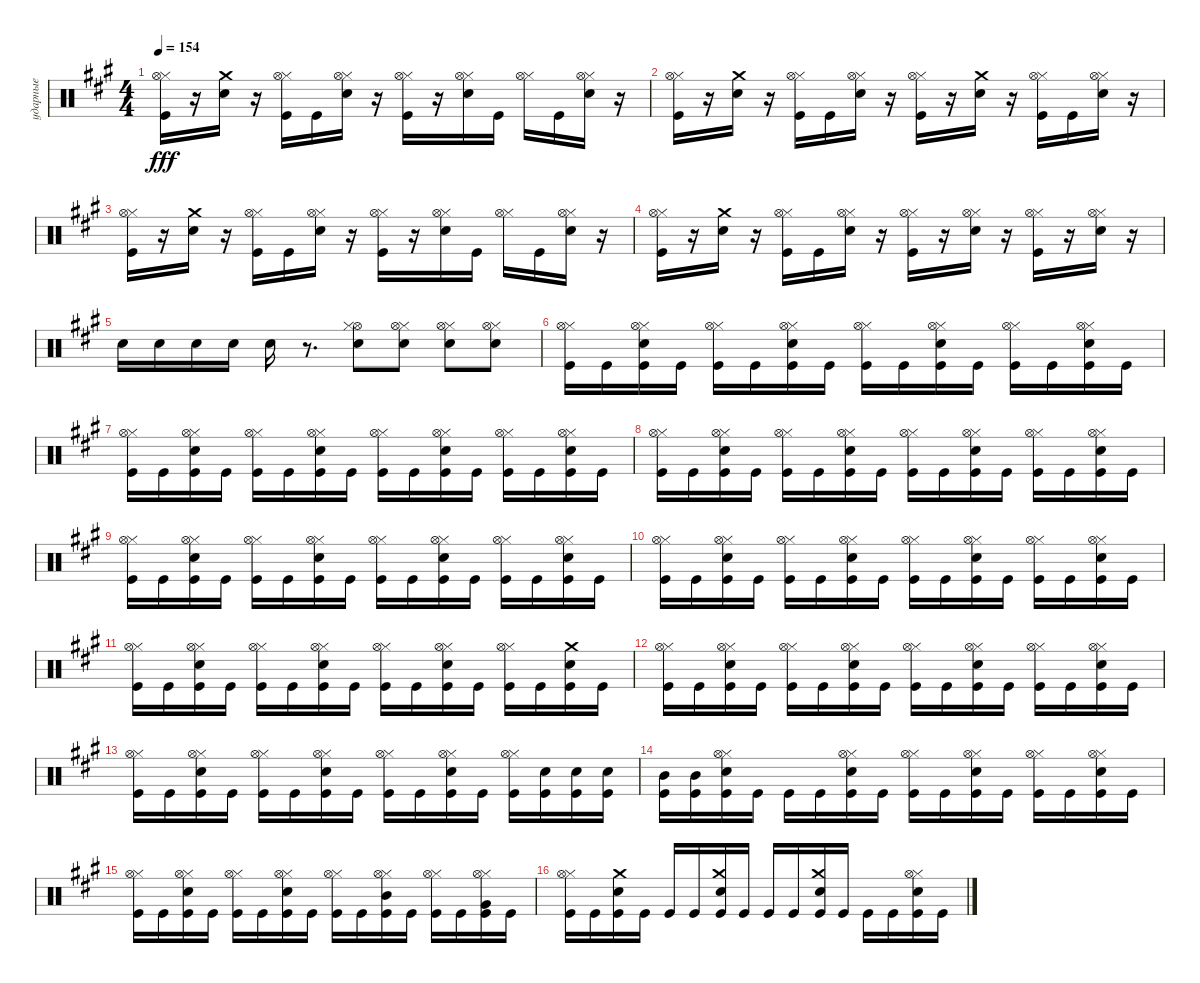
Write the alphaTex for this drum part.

\track ("ударные" "ударные") {instrument percussion}
\staff {score}
\articulation defaults
\ts (4 4)
\tempo 154
\clef neutral
\ks f#minor
("Hi-Hat (closed)" "Kick (hit)" "Hi-Hat (open)").16{dy fff} r.16 ("Crash medium (hit)" "Snare (hit) 2").16 r.16 ("Kick (hit)" "Hi-Hat (closed)" "Hi-Hat (open)").16 "Kick (hit)".16 ("Snare (hit) 2" "Hi-Hat (closed)" "Hi-Hat (open)").16 r.16 ("Hi-Hat (closed)" "Kick (hit)" "Hi-Hat (open)").16 r.16 ("Snare (hit) 2" "Hi-Hat (closed)" "Hi-Hat (open)").16 "Kick (hit)".16 ("Hi-Hat (closed)" "Hi-Hat (open)").16 "Kick (hit)".16 ("Hi-Hat (closed)" "Snare (hit) 2" "Hi-Hat (open)").16 r.16 |
("Hi-Hat (closed)" "Kick (hit)" "Hi-Hat (open)").16 r.16 ("Crash medium (hit)" "Snare (hit) 2").16 r.16 ("Kick (hit)" "Hi-Hat (closed)" "Hi-Hat (open)").16 "Kick (hit)".16 ("Snare (hit) 2" "Hi-Hat (closed)" "Hi-Hat (open)").16 r.16 ("Hi-Hat (closed)" "Kick (hit)" "Hi-Hat (open)").16 r.16 ("Crash medium (hit)" "Snare (hit) 2").16 r.16 ("Hi-Hat (closed)" "Kick (hit)" "Hi-Hat (open)").16 "Kick (hit)".16 ("Hi-Hat (closed)" "Snare (hit) 2" "Hi-Hat (open)").16 r.16 |
("Hi-Hat (closed)" "Kick (hit)" "Hi-Hat (open)").16 r.16 ("Crash medium (hit)" "Snare (hit) 2").16 r.16 ("Kick (hit)" "Hi-Hat (closed)" "Hi-Hat (open)").16 "Kick (hit)".16 ("Snare (hit) 2" "Hi-Hat (closed)" "Hi-Hat (open)").16 r.16 ("Hi-Hat (closed)" "Kick (hit)" "Hi-Hat (open)").16 r.16 ("Snare (hit) 2" "Hi-Hat (closed)" "Hi-Hat (open)").16 "Kick (hit)".16 ("Hi-Hat (closed)" "Hi-Hat (open)").16 "Kick (hit)".16 ("Hi-Hat (closed)" "Snare (hit) 2" "Hi-Hat (open)").16 r.16 |
("Hi-Hat (closed)" "Kick (hit)" "Hi-Hat (open)").16 r.16 ("Crash medium (hit)" "Snare (hit) 2").16 r.16 ("Kick (hit)" "Hi-Hat (closed)" "Hi-Hat (open)").16 "Kick (hit)".16 ("Snare (hit) 2" "Hi-Hat (closed)" "Hi-Hat (open)").16 r.16 ("Hi-Hat (closed)" "Kick (hit)" "Hi-Hat (open)").16 r.16 ("Hi-Hat (closed)" "Snare (hit) 2" "Hi-Hat (open)").16 r.16 ("Hi-Hat (closed)" "Kick (hit)" "Hi-Hat (open)").16 r.16 ("Hi-Hat (closed)" "Snare (hit) 2" "Hi-Hat (open)").16 r.16 |
"Snare (hit) 2".16 "Snare (hit) 2".16 "Snare (hit) 2".16 "Snare (hit) 2".16 "Snare (hit) 2".16 r.8{d} ("Snare (hit) 2" "Hi-Hat (open)" "Hi-Hat (closed)").8 ("Hi-Hat (closed)" "Snare (hit) 2" "Hi-Hat (open)").8 ("Hi-Hat (closed)" "Snare (hit) 2" "Hi-Hat (open)").8 ("Hi-Hat (closed)" "Snare (hit) 2" "Hi-Hat (open)").8 |
("Kick (hit)" "Hi-Hat (closed)" "Hi-Hat (open)").16 "Kick (hit)".16 ("Kick (hit)" "Snare (hit) 2" "Hi-Hat (closed)" "Hi-Hat (open)").16 "Kick (hit)".16 ("Kick (hit)" "Hi-Hat (closed)" "Hi-Hat (open)").16 "Kick (hit)".16 ("Kick (hit)" "Snare (hit) 2" "Hi-Hat (closed)" "Hi-Hat (open)").16 "Kick (hit)".16 ("Kick (hit)" "Hi-Hat (closed)" "Hi-Hat (open)").16 "Kick (hit)".16 ("Kick (hit)" "Snare (hit) 2" "Hi-Hat (closed)" "Hi-Hat (open)").16 "Kick (hit)".16 ("Kick (hit)" "Hi-Hat (closed)" "Hi-Hat (open)").16 "Kick (hit)".16 ("Kick (hit)" "Snare (hit) 2" "Hi-Hat (closed)" "Hi-Hat (open)").16 "Kick (hit)".16 |
("Kick (hit)" "Hi-Hat (closed)" "Hi-Hat (open)").16 "Kick (hit)".16 ("Kick (hit)" "Snare (hit) 2" "Hi-Hat (closed)" "Hi-Hat (open)").16 "Kick (hit)".16 ("Kick (hit)" "Hi-Hat (closed)" "Hi-Hat (open)").16 "Kick (hit)".16 ("Kick (hit)" "Snare (hit) 2" "Hi-Hat (closed)" "Hi-Hat (open)").16 "Kick (hit)".16 ("Kick (hit)" "Hi-Hat (closed)" "Hi-Hat (open)").16 "Kick (hit)".16 ("Kick (hit)" "Snare (hit) 2" "Hi-Hat (closed)" "Hi-Hat (open)").16 "Kick (hit)".16 ("Kick (hit)" "Hi-Hat (closed)" "Hi-Hat (open)").16 "Kick (hit)".16 ("Kick (hit)" "Snare (hit) 2" "Hi-Hat (closed)" "Hi-Hat (open)").16 "Kick (hit)".16 |
("Kick (hit)" "Hi-Hat (closed)" "Hi-Hat (open)").16 "Kick (hit)".16 ("Kick (hit)" "Snare (hit) 2" "Hi-Hat (closed)" "Hi-Hat (open)").16 "Kick (hit)".16 ("Kick (hit)" "Hi-Hat (closed)" "Hi-Hat (open)").16 "Kick (hit)".16 ("Kick (hit)" "Snare (hit) 2" "Hi-Hat (closed)" "Hi-Hat (open)").16 "Kick (hit)".16 ("Kick (hit)" "Hi-Hat (closed)" "Hi-Hat (open)").16 "Kick (hit)".16 ("Kick (hit)" "Snare (hit) 2" "Hi-Hat (closed)" "Hi-Hat (open)").16 "Kick (hit)".16 ("Kick (hit)" "Hi-Hat (closed)" "Hi-Hat (open)").16 "Kick (hit)".16 ("Kick (hit)" "Snare (hit) 2" "Hi-Hat (closed)" "Hi-Hat (open)").16 "Kick (hit)".16 |
("Kick (hit)" "Hi-Hat (closed)" "Hi-Hat (open)").16 "Kick (hit)".16 ("Kick (hit)" "Snare (hit) 2" "Hi-Hat (closed)" "Hi-Hat (open)").16 "Kick (hit)".16 ("Kick (hit)" "Hi-Hat (closed)" "Hi-Hat (open)").16 "Kick (hit)".16 ("Kick (hit)" "Snare (hit) 2" "Hi-Hat (closed)" "Hi-Hat (open)").16 "Kick (hit)".16 ("Kick (hit)" "Hi-Hat (closed)" "Hi-Hat (open)").16 "Kick (hit)".16 ("Kick (hit)" "Snare (hit) 2" "Hi-Hat (closed)" "Hi-Hat (open)").16 "Kick (hit)".16 ("Kick (hit)" "Hi-Hat (closed)" "Hi-Hat (open)").16 "Kick (hit)".16 ("Kick (hit)" "Snare (hit) 2" "Hi-Hat (closed)" "Hi-Hat (open)").16 "Kick (hit)".16 |
("Kick (hit)" "Hi-Hat (closed)" "Hi-Hat (open)").16 "Kick (hit)".16 ("Kick (hit)" "Snare (hit) 2" "Hi-Hat (closed)" "Hi-Hat (open)").16 "Kick (hit)".16 ("Kick (hit)" "Hi-Hat (closed)" "Hi-Hat (open)").16 "Kick (hit)".16 ("Kick (hit)" "Snare (hit) 2" "Hi-Hat (closed)" "Hi-Hat (open)").16 "Kick (hit)".16 ("Kick (hit)" "Hi-Hat (closed)" "Hi-Hat (open)").16 "Kick (hit)".16 ("Kick (hit)" "Snare (hit) 2" "Hi-Hat (closed)" "Hi-Hat (open)").16 "Kick (hit)".16 ("Kick (hit)" "Hi-Hat (closed)" "Hi-Hat (open)").16 "Kick (hit)".16 ("Kick (hit)" "Snare (hit) 2" "Hi-Hat (closed)" "Hi-Hat (open)").16 "Kick (hit)".16 |
("Kick (hit)" "Hi-Hat (closed)" "Hi-Hat (open)").16 "Kick (hit)".16 ("Kick (hit)" "Snare (hit) 2" "Hi-Hat (closed)" "Hi-Hat (open)").16 "Kick (hit)".16 ("Kick (hit)" "Hi-Hat (closed)" "Hi-Hat (open)").16 "Kick (hit)".16 ("Kick (hit)" "Snare (hit) 2" "Hi-Hat (closed)" "Hi-Hat (open)").16 "Kick (hit)".16 ("Kick (hit)" "Hi-Hat (closed)" "Hi-Hat (open)").16 "Kick (hit)".16 ("Kick (hit)" "Snare (hit) 2" "Hi-Hat (closed)" "Hi-Hat (open)").16 "Kick (hit)".16 ("Kick (hit)" "Hi-Hat (closed)" "Hi-Hat (open)").16 "Kick (hit)".16 ("Crash medium (hit)" "Kick (hit)" "Snare (hit) 2").16 "Kick (hit)".16 |
("Kick (hit)" "Hi-Hat (closed)" "Hi-Hat (open)").16 "Kick (hit)".16 ("Kick (hit)" "Snare (hit) 2" "Hi-Hat (closed)" "Hi-Hat (open)").16 "Kick (hit)".16 ("Kick (hit)" "Hi-Hat (closed)" "Hi-Hat (open)").16 "Kick (hit)".16 ("Kick (hit)" "Snare (hit) 2" "Hi-Hat (closed)" "Hi-Hat (open)").16 "Kick (hit)".16 ("Kick (hit)" "Hi-Hat (closed)" "Hi-Hat (open)").16 "Kick (hit)".16 ("Kick (hit)" "Snare (hit) 2" "Hi-Hat (closed)" "Hi-Hat (open)").16 "Kick (hit)".16 ("Kick (hit)" "Hi-Hat (closed)" "Hi-Hat (open)").16 "Kick (hit)".16 ("Kick (hit)" "Snare (hit) 2" "Hi-Hat (closed)" "Hi-Hat (open)").16 "Kick (hit)".16 |
("Kick (hit)" "Hi-Hat (closed)" "Hi-Hat (open)").16 "Kick (hit)".16 ("Kick (hit)" "Snare (hit) 2" "Hi-Hat (closed)" "Hi-Hat (open)").16 "Kick (hit)".16 ("Kick (hit)" "Hi-Hat (closed)" "Hi-Hat (open)").16 "Kick (hit)".16 ("Kick (hit)" "Snare (hit) 2" "Hi-Hat (closed)" "Hi-Hat (open)").16 "Kick (hit)".16 ("Kick (hit)" "Hi-Hat (closed)" "Hi-Hat (open)").16 "Kick (hit)".16 ("Kick (hit)" "Snare (hit) 2" "Hi-Hat (closed)" "Hi-Hat (open)").16 "Kick (hit)".16 ("Hi-Hat (closed)" "Kick (hit)" "Hi-Hat (open)").16 ("Snare (hit) 2" "Kick (hit)").16 ("Snare (hit) 2" "Kick (hit)").16 ("Snare (hit) 2" "Kick (hit)").16 |
("Mid Tom (hit)" "Kick (hit)").16 ("Mid Tom (hit)" "Kick (hit)").16 ("Hi-Hat (closed)" "Snare (hit) 2" "Kick (hit)" "Hi-Hat (open)").16 "Kick (hit)".16 "Kick (hit)".16 "Kick (hit)".16 ("Kick (hit)" "Snare (hit) 2" "Hi-Hat (closed)" "Hi-Hat (open)").16 "Kick (hit)".16 ("Kick (hit)" "Hi-Hat (closed)" "Hi-Hat (open)").16 "Kick (hit)".16 ("Kick (hit)" "Snare (hit) 2" "Hi-Hat (closed)" "Hi-Hat (open)").16 "Kick (hit)".16 ("Kick (hit)" "Hi-Hat (closed)" "Hi-Hat (open)").16 "Kick (hit)".16 ("Kick (hit)" "Snare (hit) 2" "Hi-Hat (closed)" "Hi-Hat (open)").16 "Kick (hit)".16 |
("Kick (hit)" "Hi-Hat (closed)" "Hi-Hat (open)").16 "Kick (hit)".16 ("Kick (hit)" "Snare (hit) 2" "Hi-Hat (closed)" "Hi-Hat (open)").16 "Kick (hit)".16 ("Kick (hit)" "Hi-Hat (closed)" "Hi-Hat (open)").16 "Kick (hit)".16 ("Kick (hit)" "Snare (hit) 2" "Hi-Hat (closed)" "Hi-Hat (open)").16 "Kick (hit)".16 ("Kick (hit)" "Hi-Hat (closed)" "Hi-Hat (open)").16 "Kick (hit)".16 ("Mid Tom (hit)" "Kick (hit)" "Hi-Hat (closed)" "Hi-Hat (open)").16 "Kick (hit)".16 ("Kick (hit)" "Hi-Hat (closed)" "Hi-Hat (open)").16 "Kick (hit)".16 ("Very Low Tom (hit)" "Kick (hit)" "Hi-Hat (closed)" "Hi-Hat (open)").16 "Kick (hit)".16 |
("Kick (hit)" "Hi-Hat (closed)" "Hi-Hat (open)").16 "Kick (hit)".16 ("Crash medium (hit)" "Kick (hit)" "Snare (hit) 2").16 "Kick (hit)".16 "Kick (hit)".16 "Kick (hit)".16 ("Crash medium (hit)" "Kick (hit)" "Snare (hit) 2").16 "Kick (hit)".16 "Kick (hit)".16 "Kick (hit)".16 ("Crash medium (hit)" "Kick (hit)" "Snare (hit) 2").16 "Kick (hit)".16 "Kick (hit)".16 "Kick (hit)".16 ("Kick (hit)" "Snare (hit) 2" "Hi-Hat (closed)" "Hi-Hat (open)").16 "Kick (hit)".16
